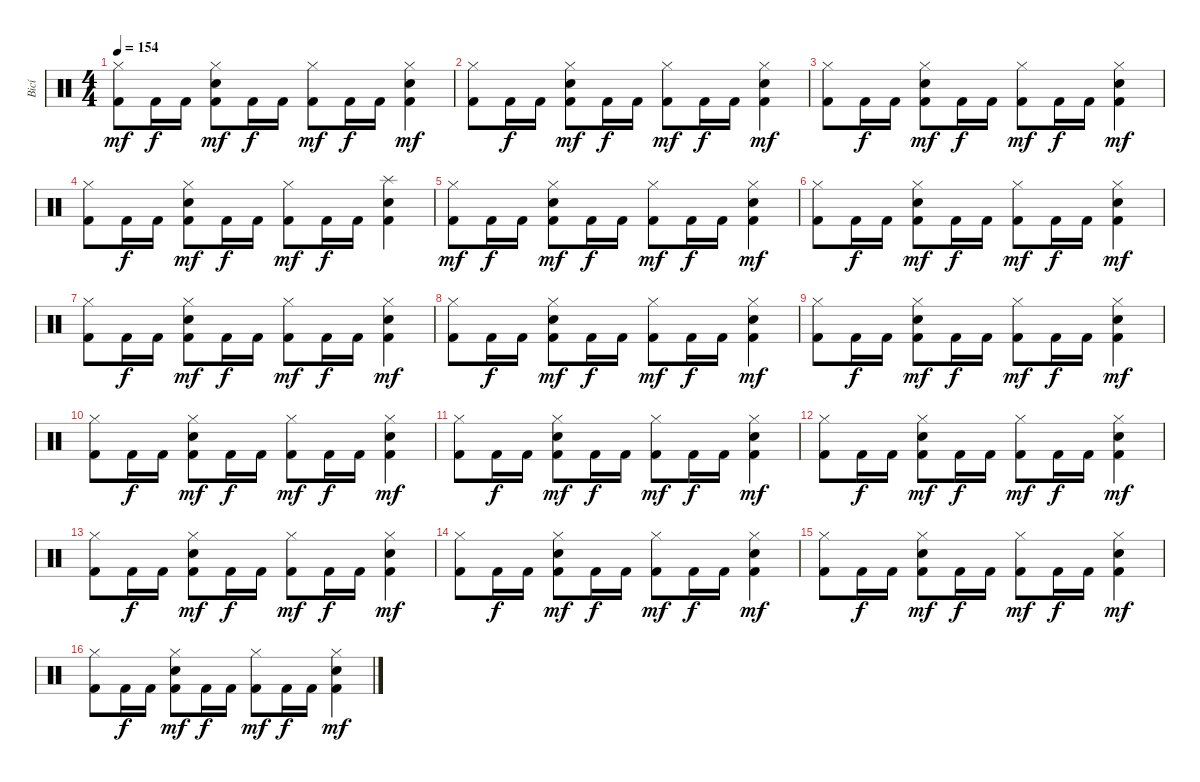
\track ("Bicí" "Bicí") {instrument percussion}
\staff {score}
\articulation defaults
\ts (4 4)
\tempo 154
\clef neutral
\ks c
("Hi-Hat (closed)" "Kick (hit) 2").8{dy mf} "Kick (hit) 2".16{dy f} "Kick (hit) 2".16 ("Hi-Hat (closed)" "Kick (hit) 2" "Electric Snare (hit)").8{dy mf} "Kick (hit) 2".16{dy f} "Kick (hit) 2".16 ("Hi-Hat (closed)" "Kick (hit) 2").8{dy mf} "Kick (hit) 2".16{dy f} "Kick (hit) 2".16 ("Hi-Hat (closed)" "Kick (hit) 2" "Electric Snare (hit)").4{dy mf} |
("Hi-Hat (closed)" "Kick (hit) 2").8 "Kick (hit) 2".16{dy f} "Kick (hit) 2".16 ("Hi-Hat (closed)" "Kick (hit) 2" "Electric Snare (hit)").8{dy mf} "Kick (hit) 2".16{dy f} "Kick (hit) 2".16 ("Hi-Hat (closed)" "Kick (hit) 2").8{dy mf} "Kick (hit) 2".16{dy f} "Kick (hit) 2".16 ("Hi-Hat (closed)" "Kick (hit) 2" "Electric Snare (hit)").4{dy mf} |
("Hi-Hat (closed)" "Kick (hit) 2").8 "Kick (hit) 2".16{dy f} "Kick (hit) 2".16 ("Hi-Hat (closed)" "Kick (hit) 2" "Electric Snare (hit)").8{dy mf} "Kick (hit) 2".16{dy f} "Kick (hit) 2".16 ("Hi-Hat (closed)" "Kick (hit) 2").8{dy mf} "Kick (hit) 2".16{dy f} "Kick (hit) 2".16 ("Hi-Hat (closed)" "Kick (hit) 2" "Electric Snare (hit)").4{dy mf} |
("Hi-Hat (closed)" "Kick (hit) 2").8 "Kick (hit) 2".16{dy f} "Kick (hit) 2".16 ("Hi-Hat (closed)" "Kick (hit) 2" "Electric Snare (hit)").8{dy mf} "Kick (hit) 2".16{dy f} "Kick (hit) 2".16 ("Hi-Hat (closed)" "Kick (hit) 2").8{dy mf} "Kick (hit) 2".16{dy f} "Kick (hit) 2".16 ("Splash (hit)" "Kick (hit) 2" "Electric Snare (hit)").4 |
("Hi-Hat (closed)" "Kick (hit) 2").8{dy mf} "Kick (hit) 2".16{dy f} "Kick (hit) 2".16 ("Hi-Hat (closed)" "Kick (hit) 2" "Electric Snare (hit)").8{dy mf} "Kick (hit) 2".16{dy f} "Kick (hit) 2".16 ("Hi-Hat (closed)" "Kick (hit) 2").8{dy mf} "Kick (hit) 2".16{dy f} "Kick (hit) 2".16 ("Hi-Hat (closed)" "Kick (hit) 2" "Electric Snare (hit)").4{dy mf} |
("Hi-Hat (closed)" "Kick (hit) 2").8 "Kick (hit) 2".16{dy f} "Kick (hit) 2".16 ("Hi-Hat (closed)" "Kick (hit) 2" "Electric Snare (hit)").8{dy mf} "Kick (hit) 2".16{dy f} "Kick (hit) 2".16 ("Hi-Hat (closed)" "Kick (hit) 2").8{dy mf} "Kick (hit) 2".16{dy f} "Kick (hit) 2".16 ("Hi-Hat (closed)" "Kick (hit) 2" "Electric Snare (hit)").4{dy mf} |
("Hi-Hat (closed)" "Kick (hit) 2").8 "Kick (hit) 2".16{dy f} "Kick (hit) 2".16 ("Hi-Hat (closed)" "Kick (hit) 2" "Electric Snare (hit)").8{dy mf} "Kick (hit) 2".16{dy f} "Kick (hit) 2".16 ("Hi-Hat (closed)" "Kick (hit) 2").8{dy mf} "Kick (hit) 2".16{dy f} "Kick (hit) 2".16 ("Hi-Hat (closed)" "Kick (hit) 2" "Electric Snare (hit)").4{dy mf} |
("Hi-Hat (closed)" "Kick (hit) 2").8 "Kick (hit) 2".16{dy f} "Kick (hit) 2".16 ("Hi-Hat (closed)" "Kick (hit) 2" "Electric Snare (hit)").8{dy mf} "Kick (hit) 2".16{dy f} "Kick (hit) 2".16 ("Hi-Hat (closed)" "Kick (hit) 2").8{dy mf} "Kick (hit) 2".16{dy f} "Kick (hit) 2".16 ("Hi-Hat (closed)" "Kick (hit) 2" "Electric Snare (hit)").4{dy mf} |
("Hi-Hat (closed)" "Kick (hit) 2").8 "Kick (hit) 2".16{dy f} "Kick (hit) 2".16 ("Hi-Hat (closed)" "Kick (hit) 2" "Electric Snare (hit)").8{dy mf} "Kick (hit) 2".16{dy f} "Kick (hit) 2".16 ("Hi-Hat (closed)" "Kick (hit) 2").8{dy mf} "Kick (hit) 2".16{dy f} "Kick (hit) 2".16 ("Hi-Hat (closed)" "Kick (hit) 2" "Electric Snare (hit)").4{dy mf} |
("Hi-Hat (closed)" "Kick (hit) 2").8 "Kick (hit) 2".16{dy f} "Kick (hit) 2".16 ("Hi-Hat (closed)" "Kick (hit) 2" "Electric Snare (hit)").8{dy mf} "Kick (hit) 2".16{dy f} "Kick (hit) 2".16 ("Hi-Hat (closed)" "Kick (hit) 2").8{dy mf} "Kick (hit) 2".16{dy f} "Kick (hit) 2".16 ("Hi-Hat (closed)" "Kick (hit) 2" "Electric Snare (hit)").4{dy mf} |
("Hi-Hat (closed)" "Kick (hit) 2").8 "Kick (hit) 2".16{dy f} "Kick (hit) 2".16 ("Hi-Hat (closed)" "Kick (hit) 2" "Electric Snare (hit)").8{dy mf} "Kick (hit) 2".16{dy f} "Kick (hit) 2".16 ("Hi-Hat (closed)" "Kick (hit) 2").8{dy mf} "Kick (hit) 2".16{dy f} "Kick (hit) 2".16 ("Hi-Hat (closed)" "Kick (hit) 2" "Electric Snare (hit)").4{dy mf} |
("Hi-Hat (closed)" "Kick (hit) 2").8 "Kick (hit) 2".16{dy f} "Kick (hit) 2".16 ("Hi-Hat (closed)" "Kick (hit) 2" "Electric Snare (hit)").8{dy mf} "Kick (hit) 2".16{dy f} "Kick (hit) 2".16 ("Hi-Hat (closed)" "Kick (hit) 2").8{dy mf} "Kick (hit) 2".16{dy f} "Kick (hit) 2".16 ("Hi-Hat (closed)" "Kick (hit) 2" "Electric Snare (hit)").4{dy mf} |
("Hi-Hat (closed)" "Kick (hit) 2").8 "Kick (hit) 2".16{dy f} "Kick (hit) 2".16 ("Hi-Hat (closed)" "Kick (hit) 2" "Electric Snare (hit)").8{dy mf} "Kick (hit) 2".16{dy f} "Kick (hit) 2".16 ("Hi-Hat (closed)" "Kick (hit) 2").8{dy mf} "Kick (hit) 2".16{dy f} "Kick (hit) 2".16 ("Hi-Hat (closed)" "Kick (hit) 2" "Electric Snare (hit)").4{dy mf} |
("Hi-Hat (closed)" "Kick (hit) 2").8 "Kick (hit) 2".16{dy f} "Kick (hit) 2".16 ("Hi-Hat (closed)" "Kick (hit) 2" "Electric Snare (hit)").8{dy mf} "Kick (hit) 2".16{dy f} "Kick (hit) 2".16 ("Hi-Hat (closed)" "Kick (hit) 2").8{dy mf} "Kick (hit) 2".16{dy f} "Kick (hit) 2".16 ("Hi-Hat (closed)" "Kick (hit) 2" "Electric Snare (hit)").4{dy mf} |
("Hi-Hat (closed)" "Kick (hit) 2").8 "Kick (hit) 2".16{dy f} "Kick (hit) 2".16 ("Hi-Hat (closed)" "Kick (hit) 2" "Electric Snare (hit)").8{dy mf} "Kick (hit) 2".16{dy f} "Kick (hit) 2".16 ("Hi-Hat (closed)" "Kick (hit) 2").8{dy mf} "Kick (hit) 2".16{dy f} "Kick (hit) 2".16 ("Hi-Hat (closed)" "Kick (hit) 2" "Electric Snare (hit)").4{dy mf} |
("Hi-Hat (closed)" "Kick (hit) 2").8 "Kick (hit) 2".16{dy f} "Kick (hit) 2".16 ("Hi-Hat (closed)" "Kick (hit) 2" "Electric Snare (hit)").8{dy mf} "Kick (hit) 2".16{dy f} "Kick (hit) 2".16 ("Hi-Hat (closed)" "Kick (hit) 2").8{dy mf} "Kick (hit) 2".16{dy f} "Kick (hit) 2".16 ("Hi-Hat (closed)" "Kick (hit) 2" "Electric Snare (hit)").4{dy mf}
